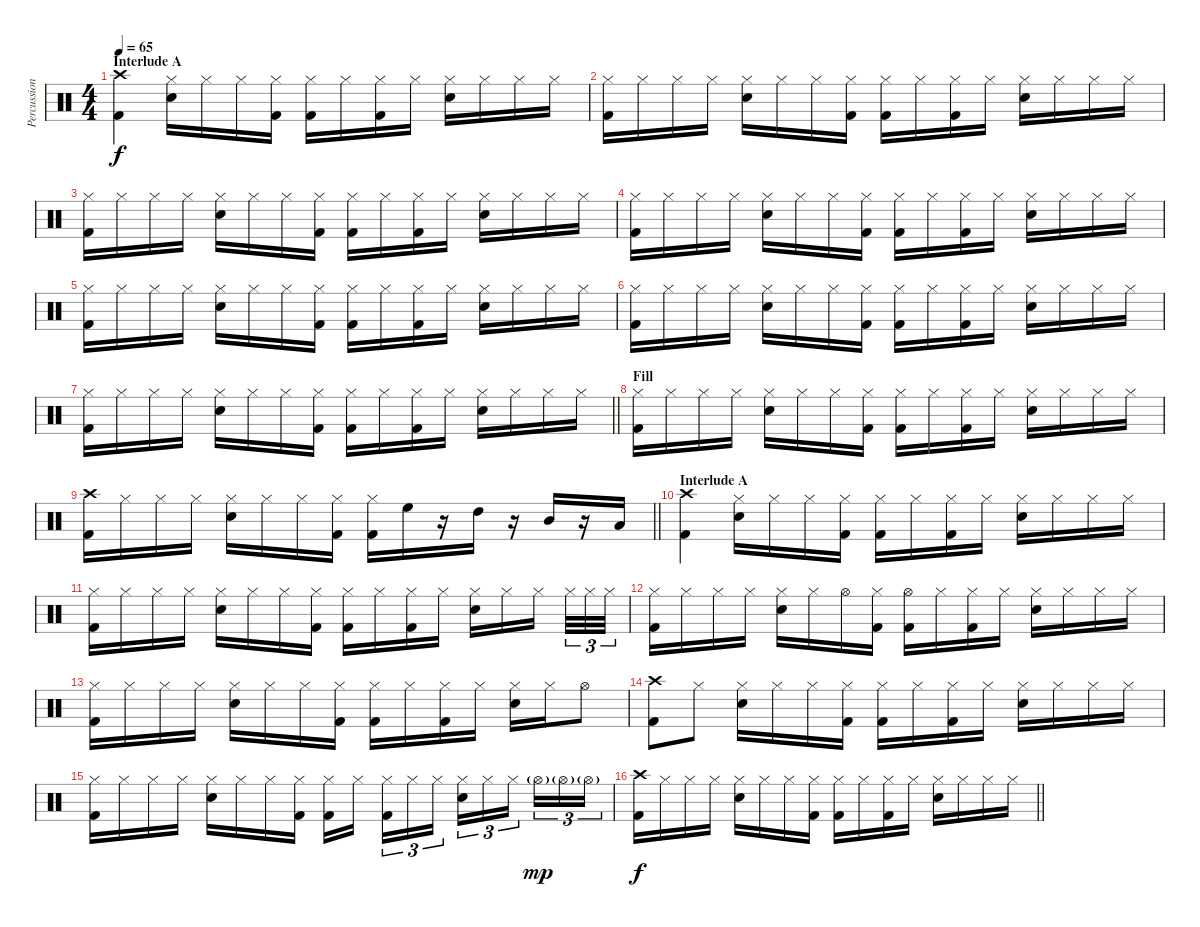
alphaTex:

\track ("Percussion" "Percussion") {instrument percussion}
\staff {score}
\articulation defaults
\ts (4 4)
\section ("" "Interlude A")
\tempo 65
\clef neutral
\ks c
("Crash high (hit)" "Kick (hit) 2").4{dy f} ("Hi-Hat (closed)" "Snare (hit) 2").16 "Hi-Hat (closed)".16 "Hi-Hat (closed)".16 ("Hi-Hat (closed)" "Kick (hit) 2").16 ("Hi-Hat (closed)" "Kick (hit) 2").16 "Hi-Hat (closed)".16 ("Hi-Hat (closed)" "Kick (hit) 2").16 "Hi-Hat (closed)".16 ("Hi-Hat (closed)" "Snare (hit) 2").16 "Hi-Hat (closed)".16 "Hi-Hat (closed)".16 "Hi-Hat (closed)".16 |
("Hi-Hat (closed)" "Kick (hit) 2").16 "Hi-Hat (closed)".16 "Hi-Hat (closed)".16 "Hi-Hat (closed)".16 ("Hi-Hat (closed)" "Snare (hit) 2").16 "Hi-Hat (closed)".16 "Hi-Hat (closed)".16 ("Hi-Hat (closed)" "Kick (hit) 2").16 ("Hi-Hat (closed)" "Kick (hit) 2").16 "Hi-Hat (closed)".16 ("Hi-Hat (closed)" "Kick (hit) 2").16 "Hi-Hat (closed)".16 ("Hi-Hat (closed)" "Snare (hit) 2").16 "Hi-Hat (closed)".16 "Hi-Hat (closed)".16 "Hi-Hat (closed)".16 |
("Hi-Hat (closed)" "Kick (hit) 2").16 "Hi-Hat (closed)".16 "Hi-Hat (closed)".16 "Hi-Hat (closed)".16 ("Hi-Hat (closed)" "Snare (hit) 2").16 "Hi-Hat (closed)".16 "Hi-Hat (closed)".16 ("Hi-Hat (closed)" "Kick (hit) 2").16 ("Hi-Hat (closed)" "Kick (hit) 2").16 "Hi-Hat (closed)".16 ("Hi-Hat (closed)" "Kick (hit) 2").16 "Hi-Hat (closed)".16 ("Hi-Hat (closed)" "Snare (hit) 2").16 "Hi-Hat (closed)".16 "Hi-Hat (closed)".16 "Hi-Hat (closed)".16 |
("Hi-Hat (closed)" "Kick (hit) 2").16 "Hi-Hat (closed)".16 "Hi-Hat (closed)".16 "Hi-Hat (closed)".16 ("Hi-Hat (closed)" "Snare (hit) 2").16 "Hi-Hat (closed)".16 "Hi-Hat (closed)".16 ("Hi-Hat (closed)" "Kick (hit) 2").16 ("Hi-Hat (closed)" "Kick (hit) 2").16 "Hi-Hat (closed)".16 ("Hi-Hat (closed)" "Kick (hit) 2").16 "Hi-Hat (closed)".16 ("Hi-Hat (closed)" "Snare (hit) 2").16 "Hi-Hat (closed)".16 "Hi-Hat (closed)".16 "Hi-Hat (closed)".16 |
("Hi-Hat (closed)" "Kick (hit) 2").16 "Hi-Hat (closed)".16 "Hi-Hat (closed)".16 "Hi-Hat (closed)".16 ("Hi-Hat (closed)" "Snare (hit) 2").16 "Hi-Hat (closed)".16 "Hi-Hat (closed)".16 ("Hi-Hat (closed)" "Kick (hit) 2").16 ("Hi-Hat (closed)" "Kick (hit) 2").16 "Hi-Hat (closed)".16 ("Hi-Hat (closed)" "Kick (hit) 2").16 "Hi-Hat (closed)".16 ("Hi-Hat (closed)" "Snare (hit) 2").16 "Hi-Hat (closed)".16 "Hi-Hat (closed)".16 "Hi-Hat (closed)".16 |
("Hi-Hat (closed)" "Kick (hit) 2").16 "Hi-Hat (closed)".16 "Hi-Hat (closed)".16 "Hi-Hat (closed)".16 ("Hi-Hat (closed)" "Snare (hit) 2").16 "Hi-Hat (closed)".16 "Hi-Hat (closed)".16 ("Hi-Hat (closed)" "Kick (hit) 2").16 ("Hi-Hat (closed)" "Kick (hit) 2").16 "Hi-Hat (closed)".16 ("Hi-Hat (closed)" "Kick (hit) 2").16 "Hi-Hat (closed)".16 ("Hi-Hat (closed)" "Snare (hit) 2").16 "Hi-Hat (closed)".16 "Hi-Hat (closed)".16 "Hi-Hat (closed)".16 |
\barLineRight lightlight
("Hi-Hat (closed)" "Kick (hit) 2").16 "Hi-Hat (closed)".16 "Hi-Hat (closed)".16 "Hi-Hat (closed)".16 ("Hi-Hat (closed)" "Snare (hit) 2").16 "Hi-Hat (closed)".16 "Hi-Hat (closed)".16 ("Hi-Hat (closed)" "Kick (hit) 2").16 ("Hi-Hat (closed)" "Kick (hit) 2").16 "Hi-Hat (closed)".16 ("Hi-Hat (closed)" "Kick (hit) 2").16 "Hi-Hat (closed)".16 ("Hi-Hat (closed)" "Snare (hit) 2").16 "Hi-Hat (closed)".16 "Hi-Hat (closed)".16 "Hi-Hat (closed)".16 |
\section ("" "Fill")
("Hi-Hat (closed)" "Kick (hit) 2").16 "Hi-Hat (closed)".16 "Hi-Hat (closed)".16 "Hi-Hat (closed)".16 ("Hi-Hat (closed)" "Snare (hit) 2").16 "Hi-Hat (closed)".16 "Hi-Hat (closed)".16 ("Hi-Hat (closed)" "Kick (hit) 2").16 ("Hi-Hat (closed)" "Kick (hit) 2").16 "Hi-Hat (closed)".16 ("Hi-Hat (closed)" "Kick (hit) 2").16 "Hi-Hat (closed)".16 ("Hi-Hat (closed)" "Snare (hit) 2").16 "Hi-Hat (closed)".16 "Hi-Hat (closed)".16 "Hi-Hat (closed)".16 |
\barLineRight lightlight
("Crash high (hit)" "Kick (hit) 2").16 "Hi-Hat (closed)".16 "Hi-Hat (closed)".16 "Hi-Hat (closed)".16 ("Hi-Hat (closed)" "Snare (hit) 2").16 "Hi-Hat (closed)".16 "Hi-Hat (closed)".16 ("Hi-Hat (closed)" "Kick (hit) 2").16 ("Hi-Hat (closed)" "Kick (hit) 2").16 "High Floor Tom (hit)".16 r.16 "High Tom (hit)".16 r.16 "Mid Tom (hit)".16 r.16 "Low Tom (hit)".16 |
\section ("" "Interlude A")
("Crash high (hit)" "Kick (hit) 2").4 ("Hi-Hat (closed)" "Snare (hit) 2").16 "Hi-Hat (closed)".16 "Hi-Hat (closed)".16 ("Hi-Hat (closed)" "Kick (hit) 2").16 ("Hi-Hat (closed)" "Kick (hit) 2").16 "Hi-Hat (closed)".16 ("Hi-Hat (closed)" "Kick (hit) 2").16 "Hi-Hat (closed)".16 ("Hi-Hat (closed)" "Snare (hit) 2").16 "Hi-Hat (closed)".16 "Hi-Hat (closed)".16 "Hi-Hat (closed)".16 |
("Hi-Hat (closed)" "Kick (hit) 2").16 "Hi-Hat (closed)".16 "Hi-Hat (closed)".16 "Hi-Hat (closed)".16 ("Hi-Hat (closed)" "Snare (hit) 2").16 "Hi-Hat (closed)".16 "Hi-Hat (closed)".16 ("Hi-Hat (closed)" "Kick (hit) 2").16 ("Hi-Hat (closed)" "Kick (hit) 2").16 "Hi-Hat (closed)".16 ("Hi-Hat (closed)" "Kick (hit) 2").16 "Hi-Hat (closed)".16 ("Hi-Hat (closed)" "Snare (hit) 2").16 "Hi-Hat (closed)".16 "Hi-Hat (closed)".16 "Hi-Hat (closed)".32{tu (3 2)} "Hi-Hat (closed)".32{tu (3 2)} "Hi-Hat (closed)".32{tu (3 2)} |
("Hi-Hat (closed)" "Kick (hit) 2").16 "Hi-Hat (closed)".16 "Hi-Hat (closed)".16 "Hi-Hat (closed)".16 ("Hi-Hat (closed)" "Snare (hit) 2").16 "Hi-Hat (closed)".16 "Hi-Hat (open)".16 ("Hi-Hat (closed)" "Kick (hit) 2").16 ("Hi-Hat (open)" "Kick (hit) 2").16 "Hi-Hat (closed)".16 ("Hi-Hat (closed)" "Kick (hit) 2").16 "Hi-Hat (closed)".16 ("Hi-Hat (closed)" "Snare (hit) 2").16 "Hi-Hat (closed)".16 "Hi-Hat (closed)".16 "Hi-Hat (closed)".16 |
("Hi-Hat (closed)" "Kick (hit) 2").16 "Hi-Hat (closed)".16 "Hi-Hat (closed)".16 "Hi-Hat (closed)".16 ("Hi-Hat (closed)" "Snare (hit) 2").16 "Hi-Hat (closed)".16 "Hi-Hat (closed)".16 ("Hi-Hat (closed)" "Kick (hit) 2").16 ("Hi-Hat (closed)" "Kick (hit) 2").16 "Hi-Hat (closed)".16 ("Hi-Hat (closed)" "Kick (hit) 2").16 "Hi-Hat (closed)".16 ("Hi-Hat (closed)" "Snare (hit) 2").16 "Hi-Hat (closed)".16 "Hi-Hat (open)".8 |
("Crash high (hit)" "Kick (hit) 2").8 "Hi-Hat (closed)".8 ("Hi-Hat (closed)" "Snare (hit) 2").16 "Hi-Hat (closed)".16 "Hi-Hat (closed)".16 ("Hi-Hat (closed)" "Kick (hit) 2").16 ("Hi-Hat (closed)" "Kick (hit) 2").16 "Hi-Hat (closed)".16 ("Hi-Hat (closed)" "Kick (hit) 2").16 "Hi-Hat (closed)".16 ("Hi-Hat (closed)" "Snare (hit) 2").16 "Hi-Hat (closed)".16 "Hi-Hat (closed)".16 "Hi-Hat (closed)".16 |
("Hi-Hat (closed)" "Kick (hit) 2").16 "Hi-Hat (closed)".16 "Hi-Hat (closed)".16 "Hi-Hat (closed)".16 ("Hi-Hat (closed)" "Snare (hit) 2").16 "Hi-Hat (closed)".16 "Hi-Hat (closed)".16 ("Hi-Hat (closed)" "Kick (hit) 2").16 ("Hi-Hat (closed)" "Kick (hit) 2").16 "Hi-Hat (closed)".16 ("Hi-Hat (closed)" "Kick (hit) 2").16{tu (3 2)} "Hi-Hat (closed)".16{tu (3 2)} "Hi-Hat (closed)".16{tu (3 2)} ("Hi-Hat (closed)" "Snare (hit) 2").16{tu (3 2)} "Hi-Hat (closed)".16{tu (3 2)} "Hi-Hat (closed)".16{tu (3 2)} "Hi-Hat (open)"{g}.16{tu (3 2) dy mp} "Hi-Hat (open)"{g}.16{tu (3 2)} "Hi-Hat (open)"{g}.16{tu (3 2)} |
\barLineRight lightlight
("Crash high (hit)" "Kick (hit) 2").16{dy f} "Hi-Hat (closed)".16 "Hi-Hat (closed)".16 "Hi-Hat (closed)".16 ("Hi-Hat (closed)" "Snare (hit) 2").16 "Hi-Hat (closed)".16 "Hi-Hat (closed)".16 ("Hi-Hat (closed)" "Kick (hit) 2").16 ("Hi-Hat (closed)" "Kick (hit) 2").16 "Hi-Hat (closed)".16 ("Hi-Hat (closed)" "Kick (hit) 2").16 "Hi-Hat (closed)".16 ("Hi-Hat (closed)" "Snare (hit) 2").16 "Hi-Hat (closed)".16 "Hi-Hat (closed)".16 "Hi-Hat (closed)".16
